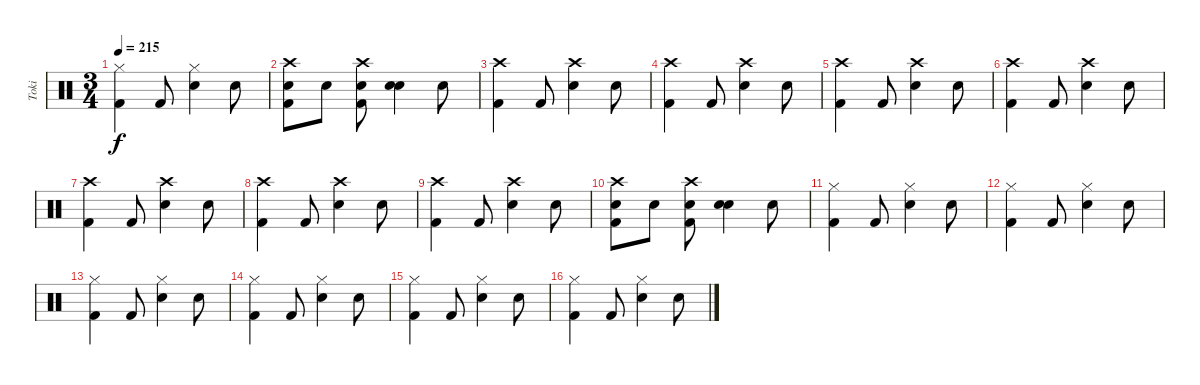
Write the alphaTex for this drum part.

\track ("Toki" "Toki") {instrument percussion}
\staff {score}
\articulation defaults
\ts (3 4)
\tempo 215
\clef neutral
\ks c
("Kick (hit) 2" "Hi-Hat (closed)").4{dy f} "Kick (hit) 2".8 ("Hi-Hat (closed)" "Snare (hit) 2").4 "Snare (hit) 2".8 |
("Kick (hit) 2" "Crash high (hit)" "Snare (hit) 2").8 "Snare (hit) 2".8 ("Kick (hit) 2" "Crash high (hit)" "Snare (hit) 2").8 ("Snare (hit) 2" "Snare (hit) 2").4 "Snare (hit) 2".8 |
("Kick (hit) 2" "Crash high (hit)").4 "Kick (hit) 2".8 ("Crash high (hit)" "Snare (hit) 2").4 "Snare (hit) 2".8 |
("Kick (hit) 2" "Crash high (hit)").4 "Kick (hit) 2".8 ("Crash high (hit)" "Snare (hit) 2").4 "Snare (hit) 2".8 |
("Kick (hit) 2" "Crash high (hit)").4 "Kick (hit) 2".8 ("Crash high (hit)" "Snare (hit) 2").4 "Snare (hit) 2".8 |
("Kick (hit) 2" "Crash high (hit)").4 "Kick (hit) 2".8 ("Crash high (hit)" "Snare (hit) 2").4 "Snare (hit) 2".8 |
("Kick (hit) 2" "Crash high (hit)").4 "Kick (hit) 2".8 ("Crash high (hit)" "Snare (hit) 2").4 "Snare (hit) 2".8 |
("Kick (hit) 2" "Crash high (hit)").4 "Kick (hit) 2".8 ("Crash high (hit)" "Snare (hit) 2").4 "Snare (hit) 2".8 |
("Kick (hit) 2" "Crash high (hit)").4 "Kick (hit) 2".8 ("Crash high (hit)" "Snare (hit) 2").4 "Snare (hit) 2".8 |
("Kick (hit) 2" "Crash high (hit)" "Snare (hit) 2").8 "Snare (hit) 2".8 ("Kick (hit) 2" "Crash high (hit)" "Snare (hit) 2").8 ("Snare (hit) 2" "Snare (hit) 2").4 "Snare (hit) 2".8 |
("Kick (hit) 2" "Hi-Hat (closed)").4 "Kick (hit) 2".8 ("Hi-Hat (closed)" "Snare (hit) 2").4 "Snare (hit) 2".8 |
("Kick (hit) 2" "Hi-Hat (closed)").4 "Kick (hit) 2".8 ("Hi-Hat (closed)" "Snare (hit) 2").4 "Snare (hit) 2".8 |
("Kick (hit) 2" "Hi-Hat (closed)").4 "Kick (hit) 2".8 ("Hi-Hat (closed)" "Snare (hit) 2").4 "Snare (hit) 2".8 |
("Kick (hit) 2" "Hi-Hat (closed)").4 "Kick (hit) 2".8 ("Hi-Hat (closed)" "Snare (hit) 2").4 "Snare (hit) 2".8 |
("Kick (hit) 2" "Hi-Hat (closed)").4 "Kick (hit) 2".8 ("Hi-Hat (closed)" "Snare (hit) 2").4 "Snare (hit) 2".8 |
("Kick (hit) 2" "Hi-Hat (closed)").4 "Kick (hit) 2".8 ("Hi-Hat (closed)" "Snare (hit) 2").4 "Snare (hit) 2".8
